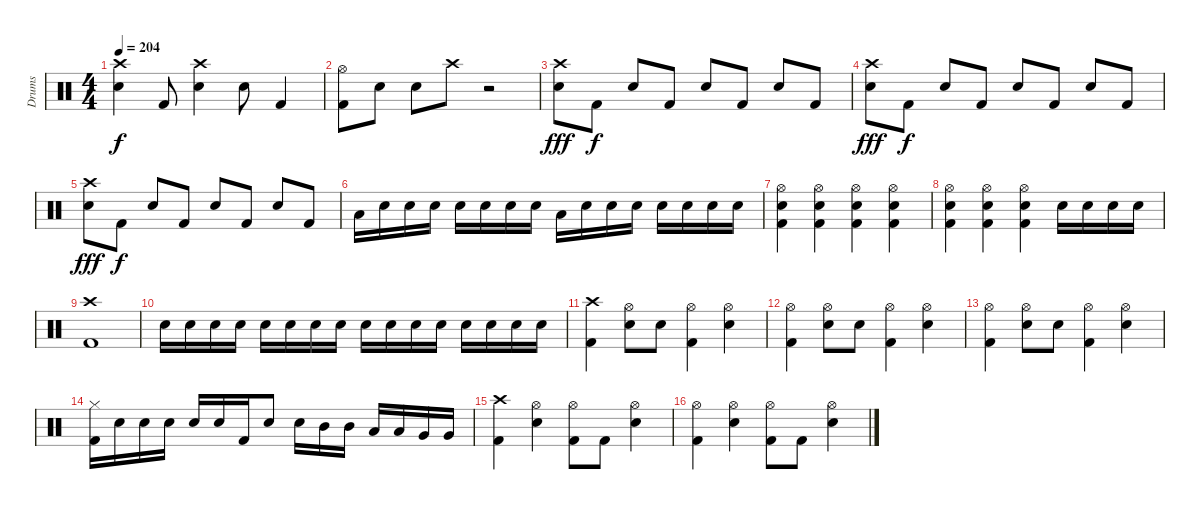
\track ("Drums" "Drums") {instrument percussion}
\staff {score}
\articulation defaults
\ts (4 4)
\tempo 204
\clef neutral
\ks c
("Crash high (hit)" "Electric Snare (hit)").4{dy f} "Kick (hit) 2".8 ("Electric Snare (hit)" "Crash high (hit)").4 "Electric Snare (hit)".8 "Kick (hit) 2".4 |
("Hi-Hat (open)" "Kick (hit) 2").8 "Electric Snare (hit)".8 "Electric Snare (hit)".8 "Crash high (hit)".8 r.2 |
("Crash high (hit)" "Electric Snare (hit)").8{dy fff} "Kick (hit) 2".8{dy f} "Electric Snare (hit)".8 "Kick (hit) 2".8 "Electric Snare (hit)".8 "Kick (hit) 2".8 "Electric Snare (hit)".8 "Kick (hit) 2".8 |
("Crash high (hit)" "Electric Snare (hit)").8{dy fff} "Kick (hit) 2".8{dy f} "Electric Snare (hit)".8 "Kick (hit) 2".8 "Electric Snare (hit)".8 "Kick (hit) 2".8 "Electric Snare (hit)".8 "Kick (hit) 2".8 |
("Crash high (hit)" "Electric Snare (hit)").8{dy fff} "Kick (hit) 2".8{dy f} "Electric Snare (hit)".8 "Kick (hit) 2".8 "Electric Snare (hit)".8 "Kick (hit) 2".8 "Electric Snare (hit)".8 "Kick (hit) 2".8 |
"Low Tom (hit)".16 "Electric Snare (hit)".16 "Electric Snare (hit)".16 "Electric Snare (hit)".16 "Electric Snare (hit)".16 "Electric Snare (hit)".16 "Electric Snare (hit)".16 "Electric Snare (hit)".16 "Low Tom (hit)".16 "Electric Snare (hit)".16 "Electric Snare (hit)".16 "Electric Snare (hit)".16 "Electric Snare (hit)".16 "Electric Snare (hit)".16 "Electric Snare (hit)".16 "Electric Snare (hit)".16 |
("Kick (hit) 2" "Hi-Hat (open)" "Electric Snare (hit)").4 ("Electric Snare (hit)" "Hi-Hat (open)" "Kick (hit) 2").4 ("Electric Snare (hit)" "Hi-Hat (open)" "Kick (hit) 2").4 ("Electric Snare (hit)" "Hi-Hat (open)" "Kick (hit) 2").4 |
("Kick (hit) 2" "Hi-Hat (open)" "Electric Snare (hit)").4 ("Electric Snare (hit)" "Hi-Hat (open)" "Kick (hit) 2").4 ("Electric Snare (hit)" "Hi-Hat (open)" "Kick (hit) 2").4 "Electric Snare (hit)".16 "Electric Snare (hit)".16 "Electric Snare (hit)".16 "Electric Snare (hit)".16 |
("Crash high (hit)" "Kick (hit) 2").1 |
"Electric Snare (hit)".16 "Electric Snare (hit)".16 "Electric Snare (hit)".16 "Electric Snare (hit)".16 "Electric Snare (hit)".16 "Electric Snare (hit)".16 "Electric Snare (hit)".16 "Electric Snare (hit)".16 "Electric Snare (hit)".16 "Electric Snare (hit)".16 "Electric Snare (hit)".16 "Electric Snare (hit)".16 "Electric Snare (hit)".16 "Electric Snare (hit)".16 "Electric Snare (hit)".16 "Electric Snare (hit)".16 |
("Crash high (hit)" "Kick (hit) 2").4 ("Hi-Hat (open)" "Electric Snare (hit)").8 "Electric Snare (hit)".8 ("Hi-Hat (open)" "Kick (hit) 2").4 ("Hi-Hat (open)" "Electric Snare (hit)").4 |
("Hi-Hat (open)" "Kick (hit) 2").4 ("Hi-Hat (open)" "Electric Snare (hit)").8 "Electric Snare (hit)".8 ("Hi-Hat (open)" "Kick (hit) 2").4 ("Hi-Hat (open)" "Electric Snare (hit)").4 |
("Hi-Hat (open)" "Kick (hit) 2").4 ("Hi-Hat (open)" "Electric Snare (hit)").8 "Electric Snare (hit)".8 ("Hi-Hat (open)" "Kick (hit) 2").4 ("Hi-Hat (open)" "Electric Snare (hit)").4 |
("Kick (hit) 2" "Hi-Hat (closed)").16 "Electric Snare (hit)".16 "Electric Snare (hit)".16 "Electric Snare (hit)".16 "Electric Snare (hit)".16 "Electric Snare (hit)".16 "Kick (hit) 2".16 "Electric Snare (hit)".8 "Electric Snare (hit)".16 "Mid Tom (hit)".16 "Mid Tom (hit)".16 "Low Tom (hit)".16 "Low Tom (hit)".16 "Very Low Tom (hit)".16 "Very Low Tom (hit)".16 |
("Crash high (hit)" "Kick (hit) 2").4 ("Hi-Hat (open)" "Electric Snare (hit)").4 ("Hi-Hat (open)" "Kick (hit) 2").8 "Kick (hit) 2".8 ("Hi-Hat (open)" "Electric Snare (hit)").4 |
("Hi-Hat (open)" "Kick (hit) 2").4 ("Hi-Hat (open)" "Electric Snare (hit)").4 ("Hi-Hat (open)" "Kick (hit) 2").8 "Kick (hit) 2".8 ("Hi-Hat (open)" "Electric Snare (hit)").4
